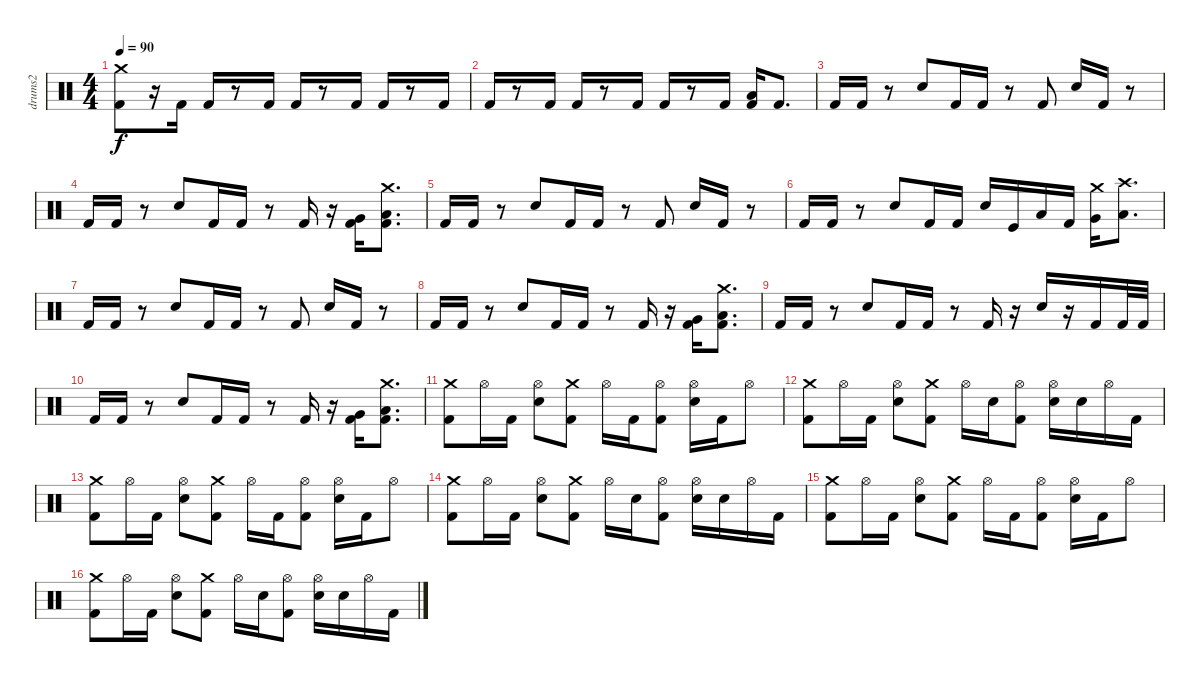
\track ("drums2" "drums2") {instrument percussion}
\staff {score}
\articulation defaults
\ts (4 4)
\tempo 90
\clef neutral
\ks c
("Crash medium (hit)" "Kick (hit) 2").8{dy f} r.16 "Kick (hit) 2".16 "Kick (hit) 2".16 r.8 "Kick (hit) 2".16 "Kick (hit) 2".16 r.8 "Kick (hit) 2".16 "Kick (hit) 2".16 r.8 "Kick (hit) 2".16 |
"Kick (hit) 2".16 r.8 "Kick (hit) 2".16 "Kick (hit) 2".16 r.8 "Kick (hit) 2".16 "Kick (hit) 2".16 r.8 "Kick (hit) 2".16 ("Low Floor Tom (hit)" "Kick (hit) 2").16 "Kick (hit) 2".8{d} |
"Kick (hit) 2".16 "Kick (hit) 2".16 r.8 "Snare (hit) 2".8 "Kick (hit) 2".16 "Kick (hit) 2".16 r.8 "Kick (hit) 2".8 "Snare (hit) 2".16 "Kick (hit) 2".16 r.8 |
"Kick (hit) 2".16 "Kick (hit) 2".16 r.8 "Snare (hit) 2".8 "Kick (hit) 2".16 "Kick (hit) 2".16 r.8 "Kick (hit) 2".16 r.16 ("Very Low Tom (hit)" "Kick (hit) 2").16 ("Crash medium (hit)" "Kick (hit) 2" "Low Floor Tom (hit)").8{d} |
"Kick (hit) 2".16 "Kick (hit) 2".16 r.8 "Snare (hit) 2".8 "Kick (hit) 2".16 "Kick (hit) 2".16 r.8 "Kick (hit) 2".8 "Snare (hit) 2".16 "Kick (hit) 2".16 r.8 |
"Kick (hit) 2".16 "Kick (hit) 2".16 r.8 "Snare (hit) 2".8 "Kick (hit) 2".16 "Kick (hit) 2".16 "Snare (hit) 2".16 "Kick (hit)".16 "Low Tom (hit)".16 "Kick (hit) 2".16 ("Crash medium (hit)" "Very Low Tom (hit)").16 ("Crash high (hit)" "Low Floor Tom (hit)").8{d} |
"Kick (hit) 2".16 "Kick (hit) 2".16 r.8 "Snare (hit) 2".8 "Kick (hit) 2".16 "Kick (hit) 2".16 r.8 "Kick (hit) 2".8 "Snare (hit) 2".16 "Kick (hit) 2".16 r.8 |
"Kick (hit) 2".16 "Kick (hit) 2".16 r.8 "Snare (hit) 2".8 "Kick (hit) 2".16 "Kick (hit) 2".16 r.8 "Kick (hit) 2".16 r.16 ("Very Low Tom (hit)" "Kick (hit) 2").16 ("Crash medium (hit)" "Kick (hit) 2" "Low Floor Tom (hit)").8{d} |
"Kick (hit) 2".16 "Kick (hit) 2".16 r.8 "Snare (hit) 2".8 "Kick (hit) 2".16 "Kick (hit) 2".16 r.8 "Kick (hit) 2".16 r.16 "Snare (hit) 2".16 r.16 "Kick (hit) 2".16 "Kick (hit) 2".32 "Kick (hit) 2".32 |
"Kick (hit) 2".16 "Kick (hit) 2".16 r.8 "Snare (hit) 2".8 "Kick (hit) 2".16 "Kick (hit) 2".16 r.8 "Kick (hit) 2".16 r.16 ("Very Low Tom (hit)" "Kick (hit) 2").16 ("Crash medium (hit)" "Kick (hit) 2" "Low Floor Tom (hit)").8{d} |
("Crash medium (hit)" "Kick (hit) 2").8 "Hi-Hat (open)".16 "Kick (hit) 2".16 ("Hi-Hat (open)" "Electric Snare (hit)").8 ("Crash medium (hit)" "Kick (hit) 2").8 "Hi-Hat (open)".16 "Kick (hit) 2".16 ("Hi-Hat (open)" "Kick (hit) 2").8 ("Hi-Hat (open)" "Electric Snare (hit)").16 "Kick (hit) 2".16 "Hi-Hat (open)".8 |
("Crash medium (hit)" "Kick (hit) 2").8 "Hi-Hat (open)".16 "Kick (hit) 2".16 ("Hi-Hat (open)" "Electric Snare (hit)").8 ("Crash medium (hit)" "Kick (hit) 2").8 "Hi-Hat (open)".16 "Electric Snare (hit)".16 ("Hi-Hat (open)" "Kick (hit) 2").8 ("Hi-Hat (open)" "Electric Snare (hit)").16 "Electric Snare (hit)".16 "Hi-Hat (open)".16 "Kick (hit) 2".16 |
("Crash medium (hit)" "Kick (hit) 2").8 "Hi-Hat (open)".16 "Kick (hit) 2".16 ("Hi-Hat (open)" "Electric Snare (hit)").8 ("Crash medium (hit)" "Kick (hit) 2").8 "Hi-Hat (open)".16 "Kick (hit) 2".16 ("Hi-Hat (open)" "Kick (hit) 2").8 ("Hi-Hat (open)" "Electric Snare (hit)").16 "Kick (hit) 2".16 "Hi-Hat (open)".8 |
("Crash medium (hit)" "Kick (hit) 2").8 "Hi-Hat (open)".16 "Kick (hit) 2".16 ("Hi-Hat (open)" "Electric Snare (hit)").8 ("Crash medium (hit)" "Kick (hit) 2").8 "Hi-Hat (open)".16 "Electric Snare (hit)".16 ("Hi-Hat (open)" "Kick (hit) 2").8 ("Hi-Hat (open)" "Electric Snare (hit)").16 "Electric Snare (hit)".16 "Hi-Hat (open)".16 "Kick (hit) 2".16 |
("Crash medium (hit)" "Kick (hit) 2").8 "Hi-Hat (open)".16 "Kick (hit) 2".16 ("Hi-Hat (open)" "Electric Snare (hit)").8 ("Crash medium (hit)" "Kick (hit) 2").8 "Hi-Hat (open)".16 "Kick (hit) 2".16 ("Hi-Hat (open)" "Kick (hit) 2").8 ("Hi-Hat (open)" "Electric Snare (hit)").16 "Kick (hit) 2".16 "Hi-Hat (open)".8 |
("Crash medium (hit)" "Kick (hit) 2").8 "Hi-Hat (open)".16 "Kick (hit) 2".16 ("Hi-Hat (open)" "Electric Snare (hit)").8 ("Crash medium (hit)" "Kick (hit) 2").8 "Hi-Hat (open)".16 "Electric Snare (hit)".16 ("Hi-Hat (open)" "Kick (hit) 2").8 ("Hi-Hat (open)" "Electric Snare (hit)").16 "Electric Snare (hit)".16 "Hi-Hat (open)".16 "Kick (hit) 2".16
